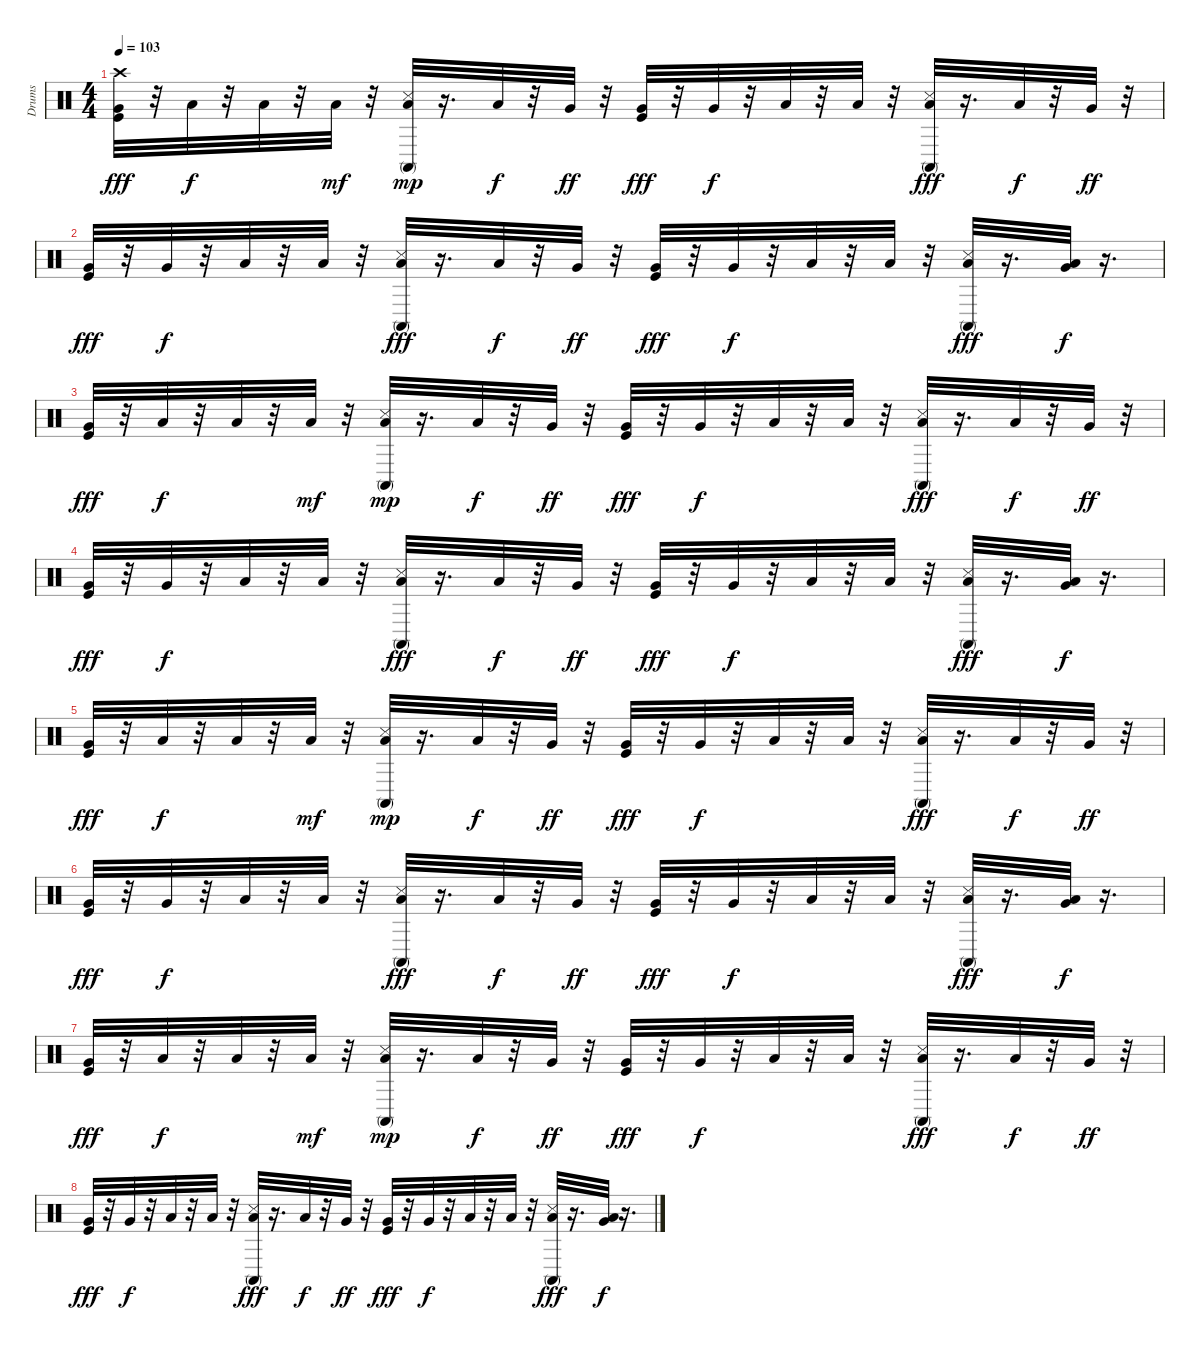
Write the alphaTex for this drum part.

\track ("Drums" "Drums") {instrument percussion}
\staff {score}
\articulation defaults
\ts (4 4)
\tempo 103
\clef neutral
\ks c
("Crash high (hit)" "Very Low Tom (hit)" "Kick (hit)").32{dy fff} r.32 "Low Floor Tom (hit)".32{dy f} r.32 "Low Floor Tom (hit)".32 r.32 "Low Floor Tom (hit)".32{dy mf} r.32 ("Conga high (mute)" "Snare (side stick) 3" "Low Floor Tom (hit)").32{dy mp} r.16{d} "Low Floor Tom (hit)".32{dy f} r.32 "Very Low Tom (hit)".32{dy ff} r.32 ("Very Low Tom (hit)" "Kick (hit)").32{dy fff} r.32 "Very Low Tom (hit)".32{dy f} r.32 "Low Floor Tom (hit)".32 r.32 "Low Floor Tom (hit)".32 r.32 ("Conga high (mute)" "Low Floor Tom (hit)" "Snare (side stick) 3").32{dy fff} r.16{d} "Low Floor Tom (hit)".32{dy f} r.32 "Very Low Tom (hit)".32{dy ff} r.32 |
("Very Low Tom (hit)" "Kick (hit)").32{dy fff} r.32 "Very Low Tom (hit)".32{dy f} r.32 "Low Floor Tom (hit)".32 r.32 "Low Floor Tom (hit)".32 r.32 ("Conga high (mute)" "Low Floor Tom (hit)" "Snare (side stick) 3").32{dy fff} r.16{d} "Low Floor Tom (hit)".32{dy f} r.32 "Very Low Tom (hit)".32{dy ff} r.32 ("Very Low Tom (hit)" "Kick (hit)").32{dy fff} r.32 "Very Low Tom (hit)".32{dy f} r.32 "Low Floor Tom (hit)".32 r.32 "Low Floor Tom (hit)".32 r.32 ("Conga high (mute)" "Low Floor Tom (hit)" "Snare (side stick) 3").32{dy fff} r.16{d} ("Low Floor Tom (hit)" "Very Low Tom (hit)").32{dy f} r.16{d} |
("Very Low Tom (hit)" "Kick (hit)").32{dy fff} r.32 "Low Floor Tom (hit)".32{dy f} r.32 "Low Floor Tom (hit)".32 r.32 "Low Floor Tom (hit)".32{dy mf} r.32 ("Conga high (mute)" "Snare (side stick) 3" "Low Floor Tom (hit)").32{dy mp} r.16{d} "Low Floor Tom (hit)".32{dy f} r.32 "Very Low Tom (hit)".32{dy ff} r.32 ("Very Low Tom (hit)" "Kick (hit)").32{dy fff} r.32 "Very Low Tom (hit)".32{dy f} r.32 "Low Floor Tom (hit)".32 r.32 "Low Floor Tom (hit)".32 r.32 ("Conga high (mute)" "Low Floor Tom (hit)" "Snare (side stick) 3").32{dy fff} r.16{d} "Low Floor Tom (hit)".32{dy f} r.32 "Very Low Tom (hit)".32{dy ff} r.32 |
("Very Low Tom (hit)" "Kick (hit)").32{dy fff} r.32 "Very Low Tom (hit)".32{dy f} r.32 "Low Floor Tom (hit)".32 r.32 "Low Floor Tom (hit)".32 r.32 ("Conga high (mute)" "Low Floor Tom (hit)" "Snare (side stick) 3").32{dy fff} r.16{d} "Low Floor Tom (hit)".32{dy f} r.32 "Very Low Tom (hit)".32{dy ff} r.32 ("Very Low Tom (hit)" "Kick (hit)").32{dy fff} r.32 "Very Low Tom (hit)".32{dy f} r.32 "Low Floor Tom (hit)".32 r.32 "Low Floor Tom (hit)".32 r.32 ("Conga high (mute)" "Low Floor Tom (hit)" "Snare (side stick) 3").32{dy fff} r.16{d} ("Low Floor Tom (hit)" "Very Low Tom (hit)").32{dy f} r.16{d} |
("Very Low Tom (hit)" "Kick (hit)").32{dy fff} r.32 "Low Floor Tom (hit)".32{dy f} r.32 "Low Floor Tom (hit)".32 r.32 "Low Floor Tom (hit)".32{dy mf} r.32 ("Conga high (mute)" "Snare (side stick) 3" "Low Floor Tom (hit)").32{dy mp} r.16{d} "Low Floor Tom (hit)".32{dy f} r.32 "Very Low Tom (hit)".32{dy ff} r.32 ("Very Low Tom (hit)" "Kick (hit)").32{dy fff} r.32 "Very Low Tom (hit)".32{dy f} r.32 "Low Floor Tom (hit)".32 r.32 "Low Floor Tom (hit)".32 r.32 ("Conga high (mute)" "Low Floor Tom (hit)" "Snare (side stick) 3").32{dy fff} r.16{d} "Low Floor Tom (hit)".32{dy f} r.32 "Very Low Tom (hit)".32{dy ff} r.32 |
("Very Low Tom (hit)" "Kick (hit)").32{dy fff} r.32 "Very Low Tom (hit)".32{dy f} r.32 "Low Floor Tom (hit)".32 r.32 "Low Floor Tom (hit)".32 r.32 ("Conga high (mute)" "Low Floor Tom (hit)" "Snare (side stick) 3").32{dy fff} r.16{d} "Low Floor Tom (hit)".32{dy f} r.32 "Very Low Tom (hit)".32{dy ff} r.32 ("Very Low Tom (hit)" "Kick (hit)").32{dy fff} r.32 "Very Low Tom (hit)".32{dy f} r.32 "Low Floor Tom (hit)".32 r.32 "Low Floor Tom (hit)".32 r.32 ("Conga high (mute)" "Low Floor Tom (hit)" "Snare (side stick) 3").32{dy fff} r.16{d} ("Low Floor Tom (hit)" "Very Low Tom (hit)").32{dy f} r.16{d} |
("Very Low Tom (hit)" "Kick (hit)").32{dy fff} r.32 "Low Floor Tom (hit)".32{dy f} r.32 "Low Floor Tom (hit)".32 r.32 "Low Floor Tom (hit)".32{dy mf} r.32 ("Conga high (mute)" "Snare (side stick) 3" "Low Floor Tom (hit)").32{dy mp} r.16{d} "Low Floor Tom (hit)".32{dy f} r.32 "Very Low Tom (hit)".32{dy ff} r.32 ("Very Low Tom (hit)" "Kick (hit)").32{dy fff} r.32 "Very Low Tom (hit)".32{dy f} r.32 "Low Floor Tom (hit)".32 r.32 "Low Floor Tom (hit)".32 r.32 ("Conga high (mute)" "Low Floor Tom (hit)" "Snare (side stick) 3").32{dy fff} r.16{d} "Low Floor Tom (hit)".32{dy f} r.32 "Very Low Tom (hit)".32{dy ff} r.32 |
("Very Low Tom (hit)" "Kick (hit)").32{dy fff} r.32 "Very Low Tom (hit)".32{dy f} r.32 "Low Floor Tom (hit)".32 r.32 "Low Floor Tom (hit)".32 r.32 ("Conga high (mute)" "Low Floor Tom (hit)" "Snare (side stick) 3").32{dy fff} r.16{d} "Low Floor Tom (hit)".32{dy f} r.32 "Very Low Tom (hit)".32{dy ff} r.32 ("Very Low Tom (hit)" "Kick (hit)").32{dy fff} r.32 "Very Low Tom (hit)".32{dy f} r.32 "Low Floor Tom (hit)".32 r.32 "Low Floor Tom (hit)".32 r.32 ("Conga high (mute)" "Low Floor Tom (hit)" "Snare (side stick) 3").32{dy fff} r.16{d} ("Low Floor Tom (hit)" "Very Low Tom (hit)").32{dy f} r.16{d}
